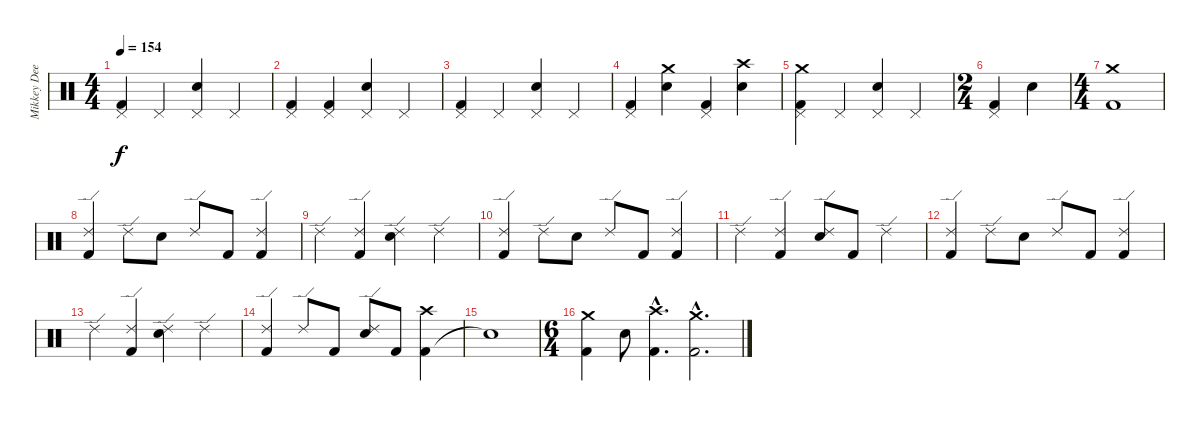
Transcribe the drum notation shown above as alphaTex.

\track ("Mikkey Dee" "Mikkey Dee") {instrument percussion}
\staff {score}
\articulation defaults
\ts (4 4)
\tempo 154
\clef neutral
\ks c
("Kick (hit) 2" "Pedal Hi-Hat (hit)").4{dy f} "Pedal Hi-Hat (hit)".4 ("Snare (hit) 2" "Pedal Hi-Hat (hit)").4 "Pedal Hi-Hat (hit)".4 |
("Kick (hit) 2" "Pedal Hi-Hat (hit)").4 ("Kick (hit) 2" "Pedal Hi-Hat (hit)").4 ("Snare (hit) 2" "Pedal Hi-Hat (hit)").4 "Pedal Hi-Hat (hit)".4 |
("Kick (hit) 2" "Pedal Hi-Hat (hit)").4 "Pedal Hi-Hat (hit)".4 ("Snare (hit) 2" "Pedal Hi-Hat (hit)").4 "Pedal Hi-Hat (hit)".4 |
("Kick (hit) 2" "Pedal Hi-Hat (hit)").4 ("Snare (hit) 2" "Crash medium (hit)").4 ("Kick (hit) 2" "Pedal Hi-Hat (hit)").4 ("Snare (hit) 2" "Crash high (hit)").4 |
("Kick (hit) 2" "Pedal Hi-Hat (hit)" "Crash medium (hit)").4 "Pedal Hi-Hat (hit)".4 ("Snare (hit) 2" "Pedal Hi-Hat (hit)").4 "Pedal Hi-Hat (hit)".4 |
\ts (2 4)
("Kick (hit) 2" "Pedal Hi-Hat (hit)").4 "Snare (hit) 2".4 |
\ts (4 4)
("Kick (hit) 2" "Crash medium (hit)").1 |
("Kick (hit) 2" "Ride (edge) 2").4 "Ride (edge) 2".8 "Snare (hit) 2".8 "Ride (edge) 2".8 "Kick (hit) 2".8 ("Kick (hit) 2" "Ride (edge) 2").4 |
"Ride (edge) 2".4 ("Kick (hit) 2" "Ride (edge) 2").4 ("Snare (hit) 2" "Ride (edge) 2").4 "Ride (edge) 2".4 |
("Kick (hit) 2" "Ride (edge) 2").4 "Ride (edge) 2".8 "Snare (hit) 2".8 "Ride (edge) 2".8 "Kick (hit) 2".8 ("Kick (hit) 2" "Ride (edge) 2").4 |
"Ride (edge) 2".4 ("Kick (hit) 2" "Ride (edge) 2").4 ("Snare (hit) 2" "Ride (edge) 2").8 "Kick (hit) 2".8 "Ride (edge) 2".4 |
("Kick (hit) 2" "Ride (edge) 2").4 "Ride (edge) 2".8 "Snare (hit) 2".8 "Ride (edge) 2".8 "Kick (hit) 2".8 ("Kick (hit) 2" "Ride (edge) 2").4 |
"Ride (edge) 2".4 ("Kick (hit) 2" "Ride (edge) 2").4 ("Snare (hit) 2" "Ride (edge) 2").4 "Ride (edge) 2".4 |
("Kick (hit) 2" "Ride (edge) 2").4 "Ride (edge) 2".8 "Kick (hit) 2".8 ("Snare (hit) 2" "Ride (edge) 2").8 "Kick (hit) 2".8 ("Kick (hit) 2" "Crash high (hit)").4 |
"Snare (hit)"{t}.1 |
\ts (6 4)
("Kick (hit) 2" "Crash medium (hit)").4 "Snare (hit) 2".8 ("Kick (hit) 2"{hac} "Crash high (hit)"{hac}).4{d} ("Kick (hit) 2"{hac} "Crash medium (hit)"{hac}).2{d}
